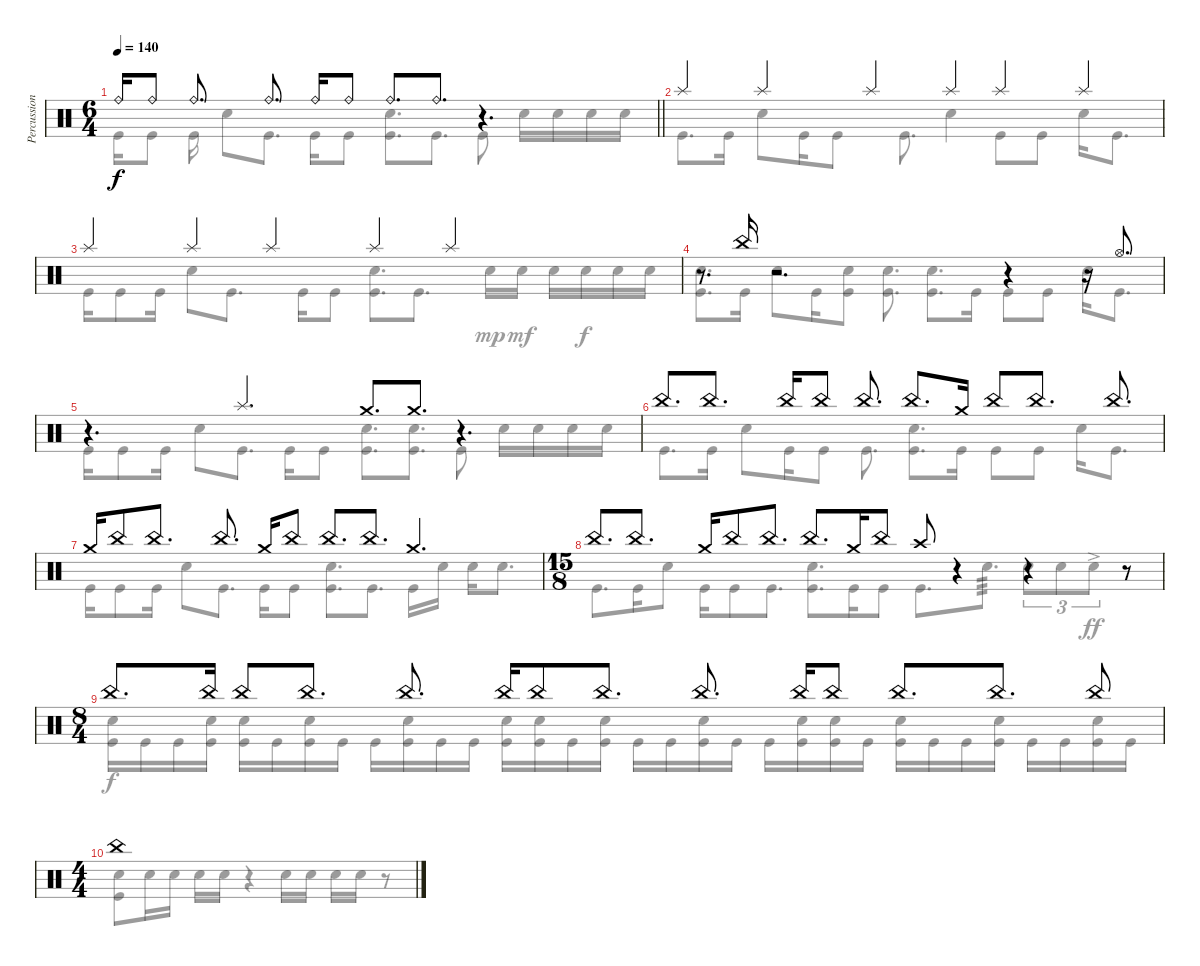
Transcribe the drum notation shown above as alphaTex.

\track ("Percussions" "Percussion") {instrument percussion}
\staff {score}
\articulation defaults
\voice
\ts (6 4)
\tempo 140
\clef neutral
\barLineRight lightlight
\ks c "Ride (bell)".16{dy f} "Ride (bell)".8{beam split} "Ride (bell)".8{d} "Ride (bell)".8{d beam split} "Ride (bell)".16 "Ride (bell)".8 "Ride (bell)".8{d} "Ride (bell)".8{d}
r.4{d} |
\section ("" "")
"Splash (hit)".4 "Splash (hit)".4 "Splash (hit)".4 "Splash (hit)".4 "Splash (hit)".4 "Splash (hit)".4 |
"Splash (hit)".4 "Splash (hit)".4 "Splash (hit)".4 "Splash (hit)".4 "Splash (hit)".2 |
r.8{d} "China (hit)".16 r.2{d} r.4 r.16 "Hi-Hat (open)".8{d} |
r.4{d} "Splash (hit)".4{d} "Crash medium (hit)".8{d} "Crash medium (hit)".8{d} r.4{d} |
"China (hit)".8{d} "China (hit)".8{d} "China (hit)".16 "China (hit)".8 "China (hit)".8{d} "China (hit)".8{d} "Crash medium (hit)".16 "China (hit)".8 "China (hit)".8{d} "China (hit)".8{d} |
"Crash medium (hit)".16 "China (hit)".8 "China (hit)".8{d} "China (hit)".8{d} "Crash medium (hit)".16 "China (hit)".8 "China (hit)".8{d} "China (hit)".8{d} "Crash medium (hit)".4{d} |
\ts (15 8)
"China (hit)".8{d} "China (hit)".8{d} "Crash medium (hit)".16 "China (hit)".8 "China (hit)".8{d} "China (hit)".8{d} "Crash medium (hit)".16 "China (hit)".8 "Crash high (hit)".8 r.4 r.4 r.8 |
\ts (8 4)
"China (hit)".8{d} "China (hit)".16 "China (hit)".8 "China (hit)".8{d} "China (hit)".8{d} "China (hit)".16 "China (hit)".8 "China (hit)".8{d} "China (hit)".8{d} "China (hit)".16 "China (hit)".8 "China (hit)".8{d} "China (hit)".8{d} "China (hit)".8 |
\ts (4 4)
"China (hit)".1
\voice
\clef neutral
\ottava regular
\simile none
\barLineRight lightlight
\ks c "Kick (hit)".16{dy f} "Kick (hit)".8{beam split} "Kick (hit)".16 "Snare (hit) 2".8 "Kick (hit)".8{d} "Kick (hit)".16 "Kick (hit)".8
("Snare (hit) 2" "Kick (hit)").8{d} "Kick (hit)".8{d beam split} "Kick (hit)".8 "Snare (hit) 2".16 "Snare (hit) 2".16 "Snare (hit) 2".16 "Snare (hit) 2".16 |
"Kick (hit)".8{d} "Kick (hit)".16 "Snare (hit) 2".8 "Kick (hit)".16 "Kick (hit)".8 "Kick (hit)".8{d} "Snare (hit) 2".4 "Kick (hit)".8 "Kick (hit)".8 "Snare (hit) 2".16 "Kick (hit)".8{d} |
"Kick (hit)".16 "Kick (hit)".8 "Kick (hit)".16 "Snare (hit) 2".8 "Kick (hit)".8{d} "Kick (hit)".16 "Kick (hit)".8 ("Snare (hit) 2" "Kick (hit)").8{d} "Kick (hit)".8{d} "Snare (hit) 2".16{dy mp} "Snare (hit) 2".16{dy mf} "Snare (hit) 2".16 "Snare (hit) 2".16{dy f} "Snare (hit) 2".16 "Snare (hit) 2".16 |
("Snare (hit) 2" "Kick (hit)").8{d} "Kick (hit)".16 "Snare (hit) 2".8 "Kick (hit)".16 ("Snare (hit) 2" "Kick (hit)").8 ("Snare (hit) 2" "Kick (hit)").8{d} ("Snare (hit) 2" "Kick (hit)").8{d} "Kick (hit)".16 "Kick (hit)".8 "Kick (hit)".8 "Snare (hit) 2".16 "Kick (hit)".8{d} |
"Kick (hit)".16 "Kick (hit)".8 "Kick (hit)".16 "Snare (hit) 2".8 "Kick (hit)".8{d} "Kick (hit)".16 "Kick (hit)".8 ("Snare (hit) 2" "Kick (hit)").8{d} ("Snare (hit) 2" "Kick (hit)").8{d} "Kick (hit)".8 "Snare (hit) 2".16 "Snare (hit) 2".16 "Snare (hit) 2".16 "Snare (hit) 2".16 |
"Kick (hit)".8{d} "Kick (hit)".16 "Snare (hit) 2".8 "Kick (hit)".16 "Kick (hit)".8 "Kick (hit)".8{d} ("Snare (hit) 2" "Kick (hit)").8{d} "Kick (hit)".16 "Kick (hit)".8 "Kick (hit)".8 "Snare (hit) 2".16 "Kick (hit)".8{d} |
"Kick (hit)".16 "Kick (hit)".8 "Kick (hit)".16 "Snare (hit) 2".8 "Kick (hit)".8{d} "Kick (hit)".16 "Kick (hit)".8 ("Snare (hit) 2" "Kick (hit)").8{d} "Kick (hit)".8{d} "Kick (hit)".16 "Snare (hit) 2".16 "Snare (hit) 2".16 "Snare (hit) 2".8{d} |
"Kick (hit)".8{d} "Kick (hit)".16 "Snare (hit) 2".8 "Kick (hit)".16 "Kick (hit)".8 "Kick (hit)".8{d} ("Snare (hit) 2" "Kick (hit)").8{d} "Kick (hit)".16 "Kick (hit)".8 "Kick (hit)".8{d} "Snare (hit) 2".8{d tp 3} "Snare (hit) 2".8{tu (3 2)} "Snare (hit) 2".8{tu (3 2)} "Snare (hit) 2"{ac}.8{tu (3 2) dy ff} r.8 |
("Snare (hit) 2" "Kick (hit)").16{dy f} "Kick (hit)".16 "Kick (hit)".16 ("Snare (hit) 2" "Kick (hit)").16 ("Snare (hit) 2" "Kick (hit)").16 "Kick (hit)".16 ("Snare (hit) 2" "Kick (hit)").16 "Kick (hit)".16 "Kick (hit)".16 ("Snare (hit) 2" "Kick (hit)").16 "Kick (hit)".16 "Kick (hit)".16 ("Snare (hit) 2" "Kick (hit)").16 ("Snare (hit) 2" "Kick (hit)").16 "Kick (hit)".16 ("Snare (hit) 2" "Kick (hit)").16 "Kick (hit)".16 "Kick (hit)".16 ("Snare (hit) 2" "Kick (hit)").16 "Kick (hit)".16 "Kick (hit)".16 ("Snare (hit) 2" "Kick (hit)").16 ("Snare (hit) 2" "Kick (hit)").16 "Kick (hit)".16 ("Snare (hit) 2" "Kick (hit)").16 "Kick (hit)".16 "Kick (hit)".16 ("Snare (hit) 2" "Kick (hit)").16 "Kick (hit)".16 "Kick (hit)".16 ("Snare (hit) 2" "Kick (hit)").16 "Kick (hit)".16 |
("Snare (hit) 2" "Kick (hit)").8 "Snare (hit) 2".16 "Snare (hit) 2".16 "Snare (hit) 2".16 "Snare (hit) 2".16 r.4 "Snare (hit) 2".16 "Snare (hit) 2".16 "Snare (hit) 2".16 "Snare (hit) 2".16 r.8
